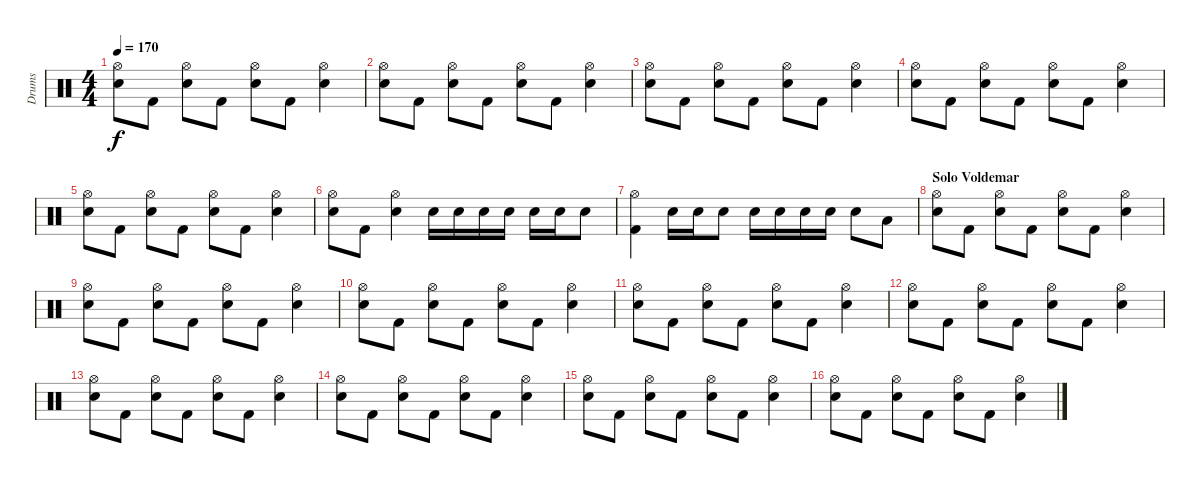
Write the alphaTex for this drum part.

\track ("Drums" "Drums") {instrument percussion}
\staff {score}
\articulation defaults
\ts (4 4)
\tempo 170
\clef neutral
\ks c
("Hi-Hat (open)" "Snare (hit) 2").8{dy f} "Kick (hit) 2".8 ("Hi-Hat (open)" "Snare (hit) 2").8 "Kick (hit) 2".8 ("Hi-Hat (open)" "Snare (hit) 2").8 "Kick (hit) 2".8 ("Hi-Hat (open)" "Snare (hit) 2").4 |
("Hi-Hat (open)" "Snare (hit) 2").8 "Kick (hit) 2".8 ("Hi-Hat (open)" "Snare (hit) 2").8 "Kick (hit) 2".8 ("Hi-Hat (open)" "Snare (hit) 2").8 "Kick (hit) 2".8 ("Hi-Hat (open)" "Snare (hit) 2").4 |
("Hi-Hat (open)" "Snare (hit) 2").8 "Kick (hit) 2".8 ("Hi-Hat (open)" "Snare (hit) 2").8 "Kick (hit) 2".8 ("Hi-Hat (open)" "Snare (hit) 2").8 "Kick (hit) 2".8 ("Hi-Hat (open)" "Snare (hit) 2").4 |
("Hi-Hat (open)" "Snare (hit) 2").8 "Kick (hit) 2".8 ("Hi-Hat (open)" "Snare (hit) 2").8 "Kick (hit) 2".8 ("Hi-Hat (open)" "Snare (hit) 2").8 "Kick (hit) 2".8 ("Hi-Hat (open)" "Snare (hit) 2").4 |
("Hi-Hat (open)" "Snare (hit) 2").8 "Kick (hit) 2".8 ("Hi-Hat (open)" "Snare (hit) 2").8 "Kick (hit) 2".8 ("Hi-Hat (open)" "Snare (hit) 2").8 "Kick (hit) 2".8 ("Hi-Hat (open)" "Snare (hit) 2").4 |
("Hi-Hat (open)" "Snare (hit) 2").8 "Kick (hit) 2".8 ("Hi-Hat (open)" "Snare (hit) 2").4 "Snare (hit) 2".16 "Snare (hit) 2".16 "Snare (hit) 2".16 "Snare (hit) 2".16 "Snare (hit) 2".16 "Snare (hit) 2".16 "Snare (hit) 2".8 |
("Hi-Hat (open)" "Kick (hit) 2").4 "Snare (hit) 2".16 "Snare (hit) 2".16 "Snare (hit) 2".8 "Snare (hit) 2".16 "Snare (hit) 2".16 "Snare (hit) 2".16 "Snare (hit) 2".16 "Snare (hit) 2".8 "Low Tom (hit)".8 |
\section ("" "Solo Voldemar")
("Hi-Hat (open)" "Snare (hit) 2").8 "Kick (hit) 2".8 ("Hi-Hat (open)" "Snare (hit) 2").8 "Kick (hit) 2".8 ("Hi-Hat (open)" "Snare (hit) 2").8 "Kick (hit) 2".8 ("Hi-Hat (open)" "Snare (hit) 2").4 |
("Hi-Hat (open)" "Snare (hit) 2").8 "Kick (hit) 2".8 ("Hi-Hat (open)" "Snare (hit) 2").8 "Kick (hit) 2".8 ("Hi-Hat (open)" "Snare (hit) 2").8 "Kick (hit) 2".8 ("Hi-Hat (open)" "Snare (hit) 2").4 |
("Hi-Hat (open)" "Snare (hit) 2").8 "Kick (hit) 2".8 ("Hi-Hat (open)" "Snare (hit) 2").8 "Kick (hit) 2".8 ("Hi-Hat (open)" "Snare (hit) 2").8 "Kick (hit) 2".8 ("Hi-Hat (open)" "Snare (hit) 2").4 |
("Hi-Hat (open)" "Snare (hit) 2").8 "Kick (hit) 2".8 ("Hi-Hat (open)" "Snare (hit) 2").8 "Kick (hit) 2".8 ("Hi-Hat (open)" "Snare (hit) 2").8 "Kick (hit) 2".8 ("Hi-Hat (open)" "Snare (hit) 2").4 |
("Hi-Hat (open)" "Snare (hit) 2").8 "Kick (hit) 2".8 ("Hi-Hat (open)" "Snare (hit) 2").8 "Kick (hit) 2".8 ("Hi-Hat (open)" "Snare (hit) 2").8 "Kick (hit) 2".8 ("Hi-Hat (open)" "Snare (hit) 2").4 |
("Hi-Hat (open)" "Snare (hit) 2").8 "Kick (hit) 2".8 ("Hi-Hat (open)" "Snare (hit) 2").8 "Kick (hit) 2".8 ("Hi-Hat (open)" "Snare (hit) 2").8 "Kick (hit) 2".8 ("Hi-Hat (open)" "Snare (hit) 2").4 |
("Hi-Hat (open)" "Snare (hit) 2").8 "Kick (hit) 2".8 ("Hi-Hat (open)" "Snare (hit) 2").8 "Kick (hit) 2".8 ("Hi-Hat (open)" "Snare (hit) 2").8 "Kick (hit) 2".8 ("Hi-Hat (open)" "Snare (hit) 2").4 |
("Hi-Hat (open)" "Snare (hit) 2").8 "Kick (hit) 2".8 ("Hi-Hat (open)" "Snare (hit) 2").8 "Kick (hit) 2".8 ("Hi-Hat (open)" "Snare (hit) 2").8 "Kick (hit) 2".8 ("Hi-Hat (open)" "Snare (hit) 2").4 |
("Hi-Hat (open)" "Snare (hit) 2").8 "Kick (hit) 2".8 ("Hi-Hat (open)" "Snare (hit) 2").8 "Kick (hit) 2".8 ("Hi-Hat (open)" "Snare (hit) 2").8 "Kick (hit) 2".8 ("Hi-Hat (open)" "Snare (hit) 2").4
